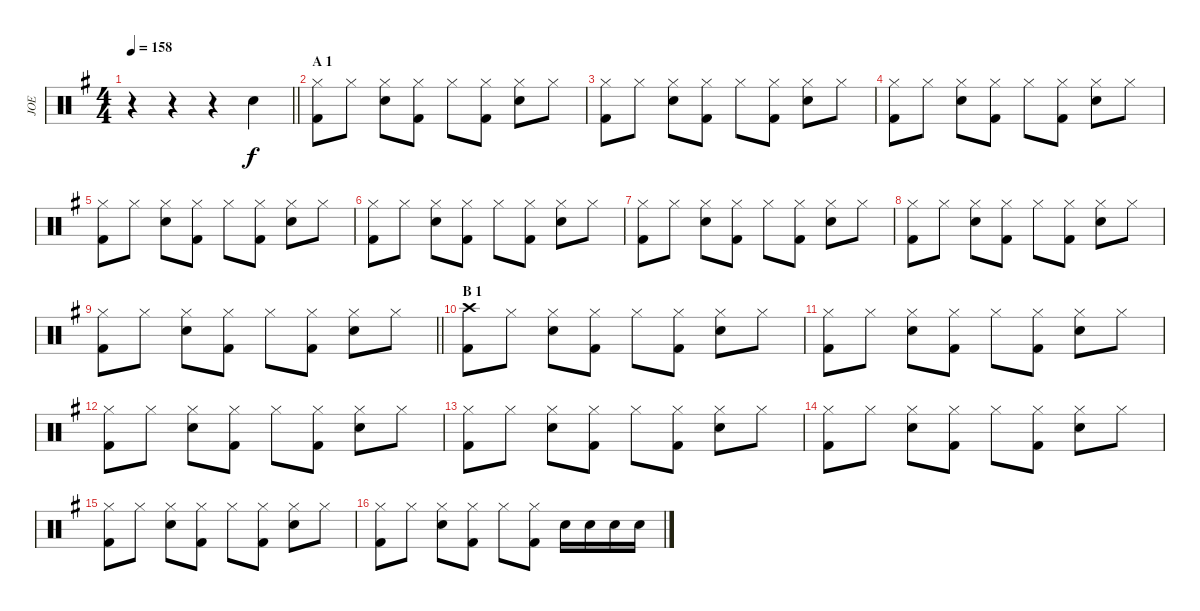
\track ("JOE" "JOE") {instrument percussion}
\staff {score}
\articulation defaults
\ts (4 4)
\tempo 158
\clef neutral
\barLineRight lightlight
\ks g
r.4{dy f} r.4 r.4 "Snare (hit) 2".4 |
\section ("" "A 1")
("Hi-Hat (closed)" "Kick (hit) 2").8 "Hi-Hat (closed)".8 ("Hi-Hat (closed)" "Snare (hit) 2").8 ("Hi-Hat (closed)" "Kick (hit) 2").8 "Hi-Hat (closed)".8 ("Hi-Hat (closed)" "Kick (hit) 2").8 ("Hi-Hat (closed)" "Snare (hit) 2").8 "Hi-Hat (closed)".8 |
("Hi-Hat (closed)" "Kick (hit) 2").8 "Hi-Hat (closed)".8 ("Hi-Hat (closed)" "Snare (hit) 2").8 ("Hi-Hat (closed)" "Kick (hit) 2").8 "Hi-Hat (closed)".8 ("Hi-Hat (closed)" "Kick (hit) 2").8 ("Hi-Hat (closed)" "Snare (hit) 2").8 "Hi-Hat (closed)".8 |
("Hi-Hat (closed)" "Kick (hit) 2").8 "Hi-Hat (closed)".8 ("Hi-Hat (closed)" "Snare (hit) 2").8 ("Hi-Hat (closed)" "Kick (hit) 2").8 "Hi-Hat (closed)".8 ("Hi-Hat (closed)" "Kick (hit) 2").8 ("Hi-Hat (closed)" "Snare (hit) 2").8 "Hi-Hat (closed)".8 |
("Hi-Hat (closed)" "Kick (hit) 2").8 "Hi-Hat (closed)".8 ("Hi-Hat (closed)" "Snare (hit) 2").8 ("Hi-Hat (closed)" "Kick (hit) 2").8 "Hi-Hat (closed)".8 ("Hi-Hat (closed)" "Kick (hit) 2").8 ("Hi-Hat (closed)" "Snare (hit) 2").8 "Hi-Hat (closed)".8 |
("Hi-Hat (closed)" "Kick (hit) 2").8 "Hi-Hat (closed)".8 ("Hi-Hat (closed)" "Snare (hit) 2").8 ("Hi-Hat (closed)" "Kick (hit) 2").8 "Hi-Hat (closed)".8 ("Hi-Hat (closed)" "Kick (hit) 2").8 ("Hi-Hat (closed)" "Snare (hit) 2").8 "Hi-Hat (closed)".8 |
("Hi-Hat (closed)" "Kick (hit) 2").8 "Hi-Hat (closed)".8 ("Hi-Hat (closed)" "Snare (hit) 2").8 ("Hi-Hat (closed)" "Kick (hit) 2").8 "Hi-Hat (closed)".8 ("Hi-Hat (closed)" "Kick (hit) 2").8 ("Hi-Hat (closed)" "Snare (hit) 2").8 "Hi-Hat (closed)".8 |
("Hi-Hat (closed)" "Kick (hit) 2").8 "Hi-Hat (closed)".8 ("Hi-Hat (closed)" "Snare (hit) 2").8 ("Hi-Hat (closed)" "Kick (hit) 2").8 "Hi-Hat (closed)".8 ("Hi-Hat (closed)" "Kick (hit) 2").8 ("Hi-Hat (closed)" "Snare (hit) 2").8 "Hi-Hat (closed)".8 |
\barLineRight lightlight
("Hi-Hat (closed)" "Kick (hit) 2").8 "Hi-Hat (closed)".8 ("Hi-Hat (closed)" "Snare (hit) 2").8 ("Hi-Hat (closed)" "Kick (hit) 2").8 "Hi-Hat (closed)".8 ("Hi-Hat (closed)" "Kick (hit) 2").8 ("Hi-Hat (closed)" "Snare (hit) 2").8 "Hi-Hat (closed)".8 |
\section ("" "B 1")
("Crash high (hit)" "Kick (hit) 2").8 "Hi-Hat (closed)".8 ("Hi-Hat (closed)" "Snare (hit) 2").8 ("Hi-Hat (closed)" "Kick (hit) 2").8 "Hi-Hat (closed)".8 ("Hi-Hat (closed)" "Kick (hit) 2").8 ("Hi-Hat (closed)" "Snare (hit) 2").8 "Hi-Hat (closed)".8 |
("Hi-Hat (closed)" "Kick (hit) 2").8 "Hi-Hat (closed)".8 ("Hi-Hat (closed)" "Snare (hit) 2").8 ("Hi-Hat (closed)" "Kick (hit) 2").8 "Hi-Hat (closed)".8 ("Hi-Hat (closed)" "Kick (hit) 2").8 ("Hi-Hat (closed)" "Snare (hit) 2").8 "Hi-Hat (closed)".8 |
("Hi-Hat (closed)" "Kick (hit) 2").8 "Hi-Hat (closed)".8 ("Hi-Hat (closed)" "Snare (hit) 2").8 ("Hi-Hat (closed)" "Kick (hit) 2").8 "Hi-Hat (closed)".8 ("Hi-Hat (closed)" "Kick (hit) 2").8 ("Hi-Hat (closed)" "Snare (hit) 2").8 "Hi-Hat (closed)".8 |
("Hi-Hat (closed)" "Kick (hit) 2").8 "Hi-Hat (closed)".8 ("Hi-Hat (closed)" "Snare (hit) 2").8 ("Hi-Hat (closed)" "Kick (hit) 2").8 "Hi-Hat (closed)".8 ("Hi-Hat (closed)" "Kick (hit) 2").8 ("Hi-Hat (closed)" "Snare (hit) 2").8 "Hi-Hat (closed)".8 |
("Hi-Hat (closed)" "Kick (hit) 2").8 "Hi-Hat (closed)".8 ("Hi-Hat (closed)" "Snare (hit) 2").8 ("Hi-Hat (closed)" "Kick (hit) 2").8 "Hi-Hat (closed)".8 ("Hi-Hat (closed)" "Kick (hit) 2").8 ("Hi-Hat (closed)" "Snare (hit) 2").8 "Hi-Hat (closed)".8 |
("Hi-Hat (closed)" "Kick (hit) 2").8 "Hi-Hat (closed)".8 ("Hi-Hat (closed)" "Snare (hit) 2").8 ("Hi-Hat (closed)" "Kick (hit) 2").8 "Hi-Hat (closed)".8 ("Hi-Hat (closed)" "Kick (hit) 2").8 ("Hi-Hat (closed)" "Snare (hit) 2").8 "Hi-Hat (closed)".8 |
("Hi-Hat (closed)" "Kick (hit) 2").8 "Hi-Hat (closed)".8 ("Hi-Hat (closed)" "Snare (hit) 2").8 ("Hi-Hat (closed)" "Kick (hit) 2").8 "Hi-Hat (closed)".8 ("Hi-Hat (closed)" "Kick (hit) 2").8 "Snare (hit) 2".16 "Snare (hit) 2".16 "Snare (hit) 2".16 "Snare (hit) 2".16
